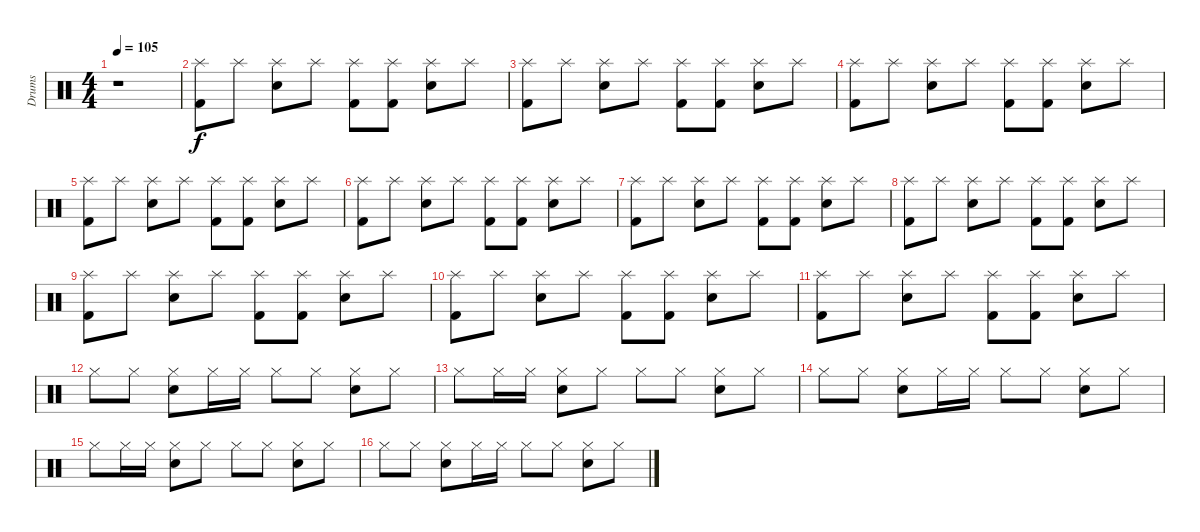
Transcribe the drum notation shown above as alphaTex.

\track ("Drums" "Drums") {instrument percussion}
\staff {score}
\articulation defaults
\ts (4 4)
\tempo 105
\clef neutral
\ks c
r.1{dy f} |
("Splash (hit)" "Kick (hit) 2").8 "Splash (hit)".8 ("Splash (hit)" "Snare (hit) 2").8 "Splash (hit)".8 ("Splash (hit)" "Kick (hit) 2").8 ("Splash (hit)" "Kick (hit) 2").8 ("Splash (hit)" "Snare (hit) 2").8 "Splash (hit)".8 |
("Splash (hit)" "Kick (hit) 2").8 "Splash (hit)".8 ("Splash (hit)" "Snare (hit) 2").8 "Splash (hit)".8 ("Splash (hit)" "Kick (hit) 2").8 ("Splash (hit)" "Kick (hit) 2").8 ("Splash (hit)" "Snare (hit) 2").8 "Splash (hit)".8 |
("Splash (hit)" "Kick (hit) 2").8 "Splash (hit)".8 ("Splash (hit)" "Snare (hit) 2").8 "Splash (hit)".8 ("Splash (hit)" "Kick (hit) 2").8 ("Splash (hit)" "Kick (hit) 2").8 ("Splash (hit)" "Snare (hit) 2").8 "Splash (hit)".8 |
("Splash (hit)" "Kick (hit) 2").8 "Splash (hit)".8 ("Splash (hit)" "Snare (hit) 2").8 "Splash (hit)".8 ("Splash (hit)" "Kick (hit) 2").8 ("Splash (hit)" "Kick (hit) 2").8 ("Splash (hit)" "Snare (hit) 2").8 "Splash (hit)".8 |
("Splash (hit)" "Kick (hit) 2").8 "Splash (hit)".8 ("Splash (hit)" "Snare (hit) 2").8 "Splash (hit)".8 ("Splash (hit)" "Kick (hit) 2").8 ("Splash (hit)" "Kick (hit) 2").8 ("Splash (hit)" "Snare (hit) 2").8 "Splash (hit)".8 |
("Splash (hit)" "Kick (hit) 2").8 "Splash (hit)".8 ("Splash (hit)" "Snare (hit) 2").8 "Splash (hit)".8 ("Splash (hit)" "Kick (hit) 2").8 ("Splash (hit)" "Kick (hit) 2").8 ("Splash (hit)" "Snare (hit) 2").8 "Splash (hit)".8 |
("Splash (hit)" "Kick (hit) 2").8 "Splash (hit)".8 ("Splash (hit)" "Snare (hit) 2").8 "Splash (hit)".8 ("Splash (hit)" "Kick (hit) 2").8 ("Splash (hit)" "Kick (hit) 2").8 ("Splash (hit)" "Snare (hit) 2").8 "Splash (hit)".8 |
("Splash (hit)" "Kick (hit) 2").8 "Splash (hit)".8 ("Splash (hit)" "Snare (hit) 2").8 "Splash (hit)".8 ("Splash (hit)" "Kick (hit) 2").8 ("Splash (hit)" "Kick (hit) 2").8 ("Splash (hit)" "Snare (hit) 2").8 "Splash (hit)".8 |
("Splash (hit)" "Kick (hit) 2").8 "Splash (hit)".8 ("Splash (hit)" "Snare (hit) 2").8 "Splash (hit)".8 ("Splash (hit)" "Kick (hit) 2").8 ("Splash (hit)" "Kick (hit) 2").8 ("Splash (hit)" "Snare (hit) 2").8 "Splash (hit)".8 |
("Splash (hit)" "Kick (hit) 2").8 "Splash (hit)".8 ("Splash (hit)" "Snare (hit) 2").8 "Splash (hit)".8 ("Splash (hit)" "Kick (hit) 2").8 ("Splash (hit)" "Kick (hit) 2").8 ("Splash (hit)" "Snare (hit) 2").8 "Splash (hit)".8 |
"Hi-Hat (closed)".8 "Hi-Hat (closed)".8 ("Hi-Hat (closed)" "Snare (hit) 2").8 "Hi-Hat (closed)".16 "Hi-Hat (closed)".16 "Hi-Hat (closed)".8 "Hi-Hat (closed)".8 ("Hi-Hat (closed)" "Snare (hit) 2").8 "Hi-Hat (closed)".8 |
"Hi-Hat (closed)".8 "Hi-Hat (closed)".16 "Hi-Hat (closed)".16 ("Hi-Hat (closed)" "Snare (hit) 2").8 "Hi-Hat (closed)".8 "Hi-Hat (closed)".8 "Hi-Hat (closed)".8 ("Hi-Hat (closed)" "Snare (hit) 2").8 "Hi-Hat (closed)".8 |
"Hi-Hat (closed)".8 "Hi-Hat (closed)".8 ("Hi-Hat (closed)" "Snare (hit) 2").8 "Hi-Hat (closed)".16 "Hi-Hat (closed)".16 "Hi-Hat (closed)".8 "Hi-Hat (closed)".8 ("Hi-Hat (closed)" "Snare (hit) 2").8 "Hi-Hat (closed)".8 |
"Hi-Hat (closed)".8 "Hi-Hat (closed)".16 "Hi-Hat (closed)".16 ("Hi-Hat (closed)" "Snare (hit) 2").8 "Hi-Hat (closed)".8 "Hi-Hat (closed)".8 "Hi-Hat (closed)".8 ("Hi-Hat (closed)" "Snare (hit) 2").8 "Hi-Hat (closed)".8 |
"Hi-Hat (closed)".8 "Hi-Hat (closed)".8 ("Hi-Hat (closed)" "Snare (hit) 2").8 "Hi-Hat (closed)".16 "Hi-Hat (closed)".16 "Hi-Hat (closed)".8 "Hi-Hat (closed)".8 ("Hi-Hat (closed)" "Snare (hit) 2").8 "Hi-Hat (closed)".8
